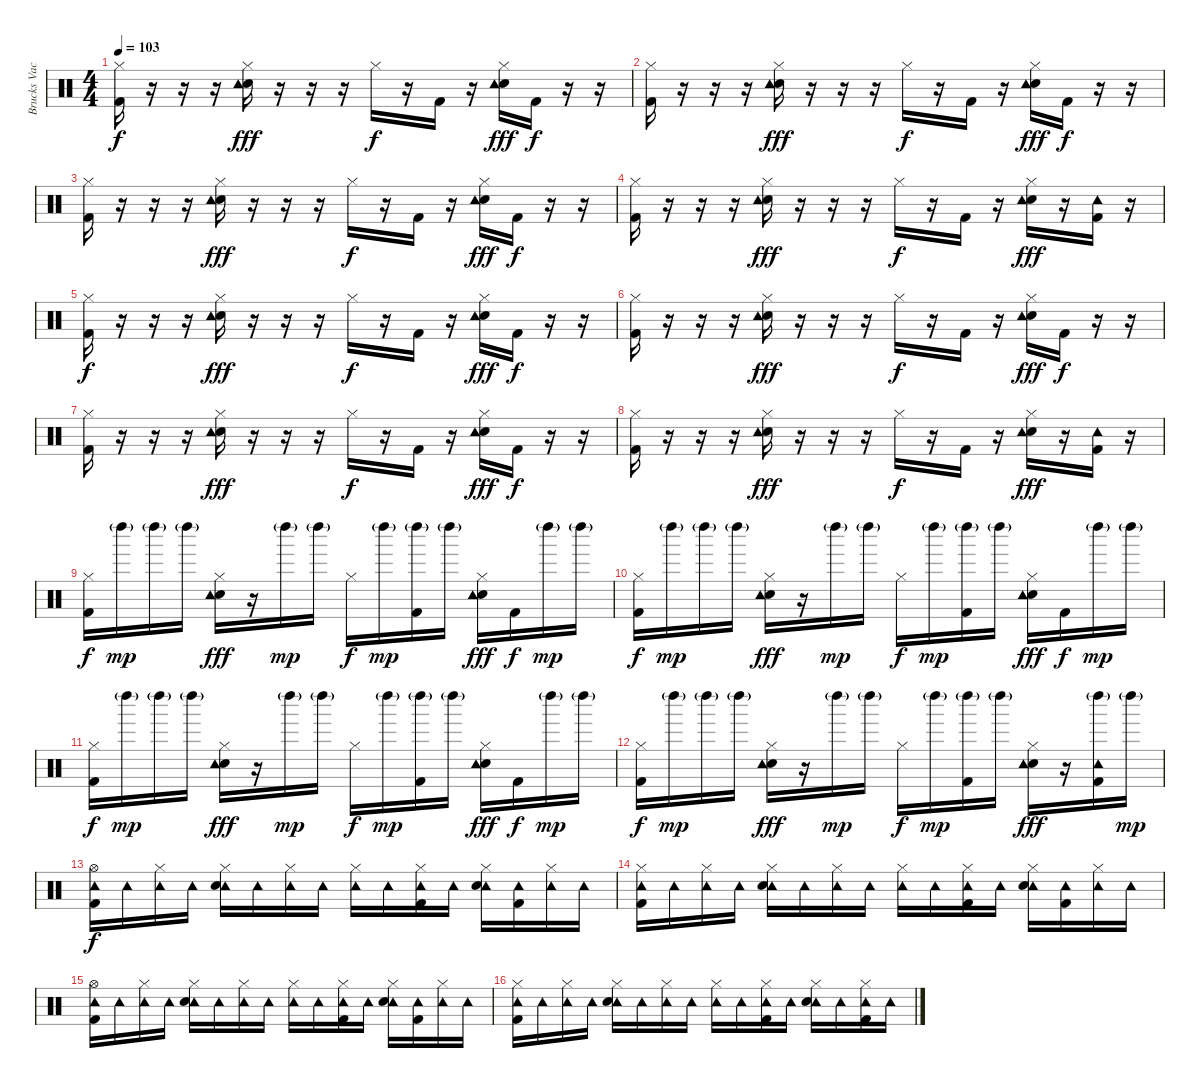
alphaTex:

\track ("Brucks Vackerman" "Brucks Vac") {instrument percussion}
\staff {score}
\articulation defaults
\ts (4 4)
\tempo 103
\clef neutral
\ks c
("Hi-Hat (closed)" "Kick (hit) 2").16{dy f} r.16 r.16 r.16 ("Hi-Hat (closed)" "Electric Snare (hit)" "Tambourine (hit)").16{dy fff} r.16 r.16 r.16 "Hi-Hat (closed)".16{dy f} r.16 "Kick (hit) 2".16 r.16 ("Hi-Hat (closed)" "Electric Snare (hit)" "Tambourine (hit)").16{dy fff} "Kick (hit) 2".16{dy f} r.16 r.16 |
("Hi-Hat (closed)" "Kick (hit) 2").16 r.16 r.16 r.16 ("Hi-Hat (closed)" "Electric Snare (hit)" "Tambourine (hit)").16{dy fff} r.16 r.16 r.16 "Hi-Hat (closed)".16{dy f} r.16 "Kick (hit) 2".16 r.16 ("Hi-Hat (closed)" "Electric Snare (hit)" "Tambourine (hit)").16{dy fff} "Kick (hit) 2".16{dy f} r.16 r.16 |
("Hi-Hat (closed)" "Kick (hit) 2").16 r.16 r.16 r.16 ("Hi-Hat (closed)" "Electric Snare (hit)" "Tambourine (hit)").16{dy fff} r.16 r.16 r.16 "Hi-Hat (closed)".16{dy f} r.16 "Kick (hit) 2".16 r.16 ("Hi-Hat (closed)" "Electric Snare (hit)" "Tambourine (hit)").16{dy fff} "Kick (hit) 2".16{dy f} r.16 r.16 |
("Hi-Hat (closed)" "Kick (hit) 2").16 r.16 r.16 r.16 ("Hi-Hat (closed)" "Electric Snare (hit)" "Tambourine (hit)").16{dy fff} r.16 r.16 r.16 "Hi-Hat (closed)".16{dy f} r.16 "Kick (hit) 2".16 r.16 ("Hi-Hat (closed)" "Electric Snare (hit)" "Tambourine (hit)").16{dy fff} r.16 ("Tambourine (hit)" "Kick (hit) 2").16 r.16 |
("Hi-Hat (closed)" "Kick (hit) 2").16{dy f} r.16 r.16 r.16 ("Hi-Hat (closed)" "Electric Snare (hit)" "Tambourine (hit)").16{dy fff} r.16 r.16 r.16 "Hi-Hat (closed)".16{dy f} r.16 "Kick (hit) 2".16 r.16 ("Hi-Hat (closed)" "Electric Snare (hit)" "Tambourine (hit)").16{dy fff} "Kick (hit) 2".16{dy f} r.16 r.16 |
("Hi-Hat (closed)" "Kick (hit) 2").16 r.16 r.16 r.16 ("Hi-Hat (closed)" "Electric Snare (hit)" "Tambourine (hit)").16{dy fff} r.16 r.16 r.16 "Hi-Hat (closed)".16{dy f} r.16 "Kick (hit) 2".16 r.16 ("Hi-Hat (closed)" "Electric Snare (hit)" "Tambourine (hit)").16{dy fff} "Kick (hit) 2".16{dy f} r.16 r.16 |
("Hi-Hat (closed)" "Kick (hit) 2").16 r.16 r.16 r.16 ("Hi-Hat (closed)" "Electric Snare (hit)" "Tambourine (hit)").16{dy fff} r.16 r.16 r.16 "Hi-Hat (closed)".16{dy f} r.16 "Kick (hit) 2".16 r.16 ("Hi-Hat (closed)" "Electric Snare (hit)" "Tambourine (hit)").16{dy fff} "Kick (hit) 2".16{dy f} r.16 r.16 |
("Hi-Hat (closed)" "Kick (hit) 2").16 r.16 r.16 r.16 ("Hi-Hat (closed)" "Electric Snare (hit)" "Tambourine (hit)").16{dy fff} r.16 r.16 r.16 "Hi-Hat (closed)".16{dy f} r.16 "Kick (hit) 2".16 r.16 ("Hi-Hat (closed)" "Electric Snare (hit)" "Tambourine (hit)").16{dy fff} r.16 ("Tambourine (hit)" "Kick (hit) 2").16 r.16 |
("Hi-Hat (closed)" "Kick (hit) 2").16{dy f} "Left Maraca (hit)"{g}.16{dy mp} "Left Maraca (hit)"{g}.16 "Left Maraca (hit)"{g}.16 ("Hi-Hat (closed)" "Electric Snare (hit)" "Tambourine (hit)").16{dy fff} r.16 "Left Maraca (hit)"{g}.16{dy mp} "Left Maraca (hit)"{g}.16 "Hi-Hat (closed)".16{dy f} "Left Maraca (hit)"{g}.16{dy mp} ("Left Maraca (hit)"{g} "Kick (hit) 2").16 "Left Maraca (hit)"{g}.16 ("Hi-Hat (closed)" "Electric Snare (hit)" "Tambourine (hit)").16{dy fff} "Kick (hit) 2".16{dy f} "Left Maraca (hit)"{g}.16{dy mp} "Left Maraca (hit)"{g}.16 |
("Hi-Hat (closed)" "Kick (hit) 2").16{dy f} "Left Maraca (hit)"{g}.16{dy mp} "Left Maraca (hit)"{g}.16 "Left Maraca (hit)"{g}.16 ("Hi-Hat (closed)" "Electric Snare (hit)" "Tambourine (hit)").16{dy fff} r.16 "Left Maraca (hit)"{g}.16{dy mp} "Left Maraca (hit)"{g}.16 "Hi-Hat (closed)".16{dy f} "Left Maraca (hit)"{g}.16{dy mp} ("Left Maraca (hit)"{g} "Kick (hit) 2").16 "Left Maraca (hit)"{g}.16 ("Hi-Hat (closed)" "Electric Snare (hit)" "Tambourine (hit)").16{dy fff} "Kick (hit) 2".16{dy f} "Left Maraca (hit)"{g}.16{dy mp} "Left Maraca (hit)"{g}.16 |
("Hi-Hat (closed)" "Kick (hit) 2").16{dy f} "Left Maraca (hit)"{g}.16{dy mp} "Left Maraca (hit)"{g}.16 "Left Maraca (hit)"{g}.16 ("Hi-Hat (closed)" "Electric Snare (hit)" "Tambourine (hit)").16{dy fff} r.16 "Left Maraca (hit)"{g}.16{dy mp} "Left Maraca (hit)"{g}.16 "Hi-Hat (closed)".16{dy f} "Left Maraca (hit)"{g}.16{dy mp} ("Left Maraca (hit)"{g} "Kick (hit) 2").16 "Left Maraca (hit)"{g}.16 ("Hi-Hat (closed)" "Electric Snare (hit)" "Tambourine (hit)").16{dy fff} "Kick (hit) 2".16{dy f} "Left Maraca (hit)"{g}.16{dy mp} "Left Maraca (hit)"{g}.16 |
("Hi-Hat (closed)" "Kick (hit) 2").16{dy f} "Left Maraca (hit)"{g}.16{dy mp} "Left Maraca (hit)"{g}.16 "Left Maraca (hit)"{g}.16 ("Hi-Hat (closed)" "Electric Snare (hit)" "Tambourine (hit)").16{dy fff} r.16 "Left Maraca (hit)"{g}.16{dy mp} "Left Maraca (hit)"{g}.16 "Hi-Hat (closed)".16{dy f} "Left Maraca (hit)"{g}.16{dy mp} ("Left Maraca (hit)"{g} "Kick (hit) 2").16 "Left Maraca (hit)"{g}.16 ("Hi-Hat (closed)" "Electric Snare (hit)" "Tambourine (hit)").16{dy fff} r.16 ("Left Maraca (hit)"{g} "Tambourine (hit)" "Kick (hit) 2").16 "Left Maraca (hit)"{g}.16{dy mp} |
("Hi-Hat (open)" "Tambourine (hit)" "Kick (hit) 2").16{dy f} "Tambourine (hit)".16 ("Hi-Hat (closed)" "Tambourine (hit)").16 "Tambourine (hit)".16 ("Hi-Hat (closed)" "Tambourine (hit)" "Electric Snare (hit)").16 "Tambourine (hit)".16 ("Hi-Hat (closed)" "Tambourine (hit)").16 "Tambourine (hit)".16 ("Hi-Hat (closed)" "Tambourine (hit)").16 "Tambourine (hit)".16 ("Hi-Hat (closed)" "Tambourine (hit)" "Kick (hit) 2").16 "Tambourine (hit)".16 ("Hi-Hat (closed)" "Tambourine (hit)" "Electric Snare (hit)").16 ("Tambourine (hit)" "Kick (hit) 2").16 ("Hi-Hat (closed)" "Tambourine (hit)").16 "Tambourine (hit)".16 |
("Hi-Hat (closed)" "Tambourine (hit)" "Kick (hit) 2").16 "Tambourine (hit)".16 ("Hi-Hat (closed)" "Tambourine (hit)").16 "Tambourine (hit)".16 ("Hi-Hat (closed)" "Tambourine (hit)" "Electric Snare (hit)").16 "Tambourine (hit)".16 ("Hi-Hat (closed)" "Tambourine (hit)").16 "Tambourine (hit)".16 ("Hi-Hat (closed)" "Tambourine (hit)").16 "Tambourine (hit)".16 ("Hi-Hat (closed)" "Tambourine (hit)" "Kick (hit) 2").16 "Tambourine (hit)".16 ("Hi-Hat (closed)" "Tambourine (hit)" "Electric Snare (hit)").16 ("Tambourine (hit)" "Kick (hit) 2").16 ("Hi-Hat (closed)" "Tambourine (hit)").16 "Tambourine (hit)".16 |
("Hi-Hat (open)" "Tambourine (hit)" "Kick (hit) 2").16 "Tambourine (hit)".16 ("Hi-Hat (closed)" "Tambourine (hit)").16 "Tambourine (hit)".16 ("Hi-Hat (closed)" "Tambourine (hit)" "Electric Snare (hit)").16 "Tambourine (hit)".16 ("Hi-Hat (closed)" "Tambourine (hit)").16 "Tambourine (hit)".16 ("Hi-Hat (closed)" "Tambourine (hit)").16 "Tambourine (hit)".16 ("Hi-Hat (closed)" "Tambourine (hit)" "Kick (hit) 2").16 "Tambourine (hit)".16 ("Hi-Hat (closed)" "Tambourine (hit)" "Electric Snare (hit)").16 ("Tambourine (hit)" "Kick (hit) 2").16 ("Hi-Hat (closed)" "Tambourine (hit)").16 "Tambourine (hit)".16 |
("Hi-Hat (closed)" "Tambourine (hit)" "Kick (hit) 2").16 "Tambourine (hit)".16 ("Hi-Hat (closed)" "Tambourine (hit)").16 "Tambourine (hit)".16 ("Hi-Hat (closed)" "Tambourine (hit)" "Electric Snare (hit)").16 "Tambourine (hit)".16 ("Hi-Hat (closed)" "Tambourine (hit)").16 "Tambourine (hit)".16 ("Hi-Hat (closed)" "Tambourine (hit)").16 "Tambourine (hit)".16 ("Hi-Hat (closed)" "Tambourine (hit)" "Kick (hit) 2").16 "Tambourine (hit)".16 ("Hi-Hat (closed)" "Tambourine (hit)" "Electric Snare (hit)").16 "Tambourine (hit)".16 ("Hi-Hat (closed)" "Tambourine (hit)" "Kick (hit) 2").16 "Tambourine (hit)".16
